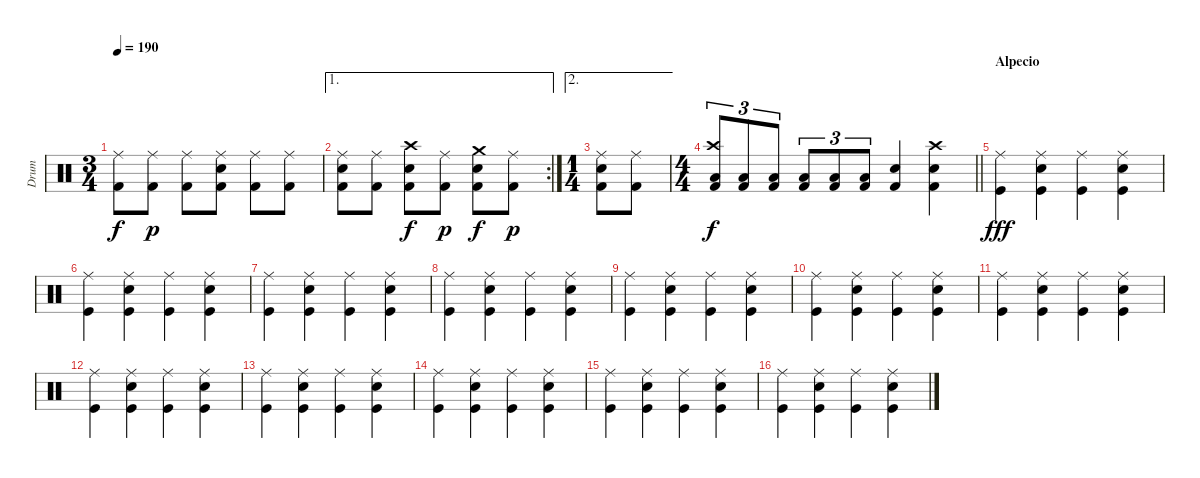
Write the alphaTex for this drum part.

\track ("Drum" "Drum") {instrument percussion}
\staff {score}
\articulation defaults
\ts (3 4)
\tempo 190
\clef neutral
\ks c
("Ride (middle)" "Kick (hit) 2").8{dy f} ("Ride (middle)" "Kick (hit) 2").8{dy p} ("Ride (middle)" "Kick (hit) 2").8 ("Ride (middle)" "Snare (hit) 2" "Kick (hit) 2").8 ("Ride (middle)" "Kick (hit) 2").8 ("Ride (middle)" "Kick (hit) 2").8 |
\ae 1
\rc 2
("Ride (middle)" "Snare (hit) 2" "Kick (hit) 2").8 ("Ride (middle)" "Kick (hit) 2").8 ("Crash high (hit)" "Snare (hit) 2" "Kick (hit) 2").8{dy f} ("Ride (middle)" "Kick (hit) 2").8{dy p} ("Crash medium (hit)" "Snare (hit) 2" "Kick (hit) 2").8{dy f} ("Ride (middle)" "Kick (hit) 2").8{dy p} |
\ae 2
\ts (1 4)
("Ride (middle)" "Snare (hit) 2" "Kick (hit) 2").8 ("Ride (middle)" "Kick (hit) 2").8 |
\ts (4 4)
\barLineRight lightlight
("Crash high (hit)" "Low Floor Tom (hit)" "Kick (hit) 2").8{tu (3 2) dy f} ("Low Floor Tom (hit)" "Kick (hit) 2").8{tu (3 2)} ("Low Floor Tom (hit)" "Kick (hit) 2").8{tu (3 2)} ("Low Floor Tom (hit)" "Kick (hit) 2").8{tu (3 2)} ("Low Floor Tom (hit)" "Kick (hit) 2").8{tu (3 2)} ("Low Floor Tom (hit)" "Kick (hit) 2").8{tu (3 2)} ("Snare (hit) 2" "Kick (hit) 2").4 ("Crash high (hit)" "Snare (hit) 2" "Kick (hit) 2").4 |
\section ("" "Alpecio")
("Ride (middle)" "Kick (hit)").4{dy fff} ("Ride (middle)" "Snare (hit) 2" "Kick (hit)").4 ("Ride (middle)" "Kick (hit)").4 ("Ride (middle)" "Snare (hit) 2" "Kick (hit)").4 |
("Ride (middle)" "Kick (hit)").4 ("Ride (middle)" "Snare (hit) 2" "Kick (hit)").4 ("Ride (middle)" "Kick (hit)").4 ("Ride (middle)" "Snare (hit) 2" "Kick (hit)").4 |
("Ride (middle)" "Kick (hit)").4 ("Ride (middle)" "Snare (hit) 2" "Kick (hit)").4 ("Ride (middle)" "Kick (hit)").4 ("Ride (middle)" "Snare (hit) 2" "Kick (hit)").4 |
("Ride (middle)" "Kick (hit)").4 ("Ride (middle)" "Snare (hit) 2" "Kick (hit)").4 ("Ride (middle)" "Kick (hit)").4 ("Ride (middle)" "Snare (hit) 2" "Kick (hit)").4 |
("Ride (middle)" "Kick (hit)").4 ("Ride (middle)" "Snare (hit) 2" "Kick (hit)").4 ("Ride (middle)" "Kick (hit)").4 ("Ride (middle)" "Snare (hit) 2" "Kick (hit)").4 |
("Ride (middle)" "Kick (hit)").4 ("Ride (middle)" "Snare (hit) 2" "Kick (hit)").4 ("Ride (middle)" "Kick (hit)").4 ("Ride (middle)" "Snare (hit) 2" "Kick (hit)").4 |
("Ride (middle)" "Kick (hit)").4 ("Ride (middle)" "Snare (hit) 2" "Kick (hit)").4 ("Ride (middle)" "Kick (hit)").4 ("Ride (middle)" "Snare (hit) 2" "Kick (hit)").4 |
("Ride (middle)" "Kick (hit)").4 ("Ride (middle)" "Snare (hit) 2" "Kick (hit)").4 ("Ride (middle)" "Kick (hit)").4 ("Ride (middle)" "Snare (hit) 2" "Kick (hit)").4 |
("Ride (middle)" "Kick (hit)").4 ("Ride (middle)" "Snare (hit) 2" "Kick (hit)").4 ("Ride (middle)" "Kick (hit)").4 ("Ride (middle)" "Snare (hit) 2" "Kick (hit)").4 |
("Ride (middle)" "Kick (hit)").4 ("Ride (middle)" "Snare (hit) 2" "Kick (hit)").4 ("Ride (middle)" "Kick (hit)").4 ("Ride (middle)" "Snare (hit) 2" "Kick (hit)").4 |
("Ride (middle)" "Kick (hit)").4 ("Ride (middle)" "Snare (hit) 2" "Kick (hit)").4 ("Ride (middle)" "Kick (hit)").4 ("Ride (middle)" "Snare (hit) 2" "Kick (hit)").4 |
("Ride (middle)" "Kick (hit)").4 ("Ride (middle)" "Snare (hit) 2" "Kick (hit)").4 ("Ride (middle)" "Kick (hit)").4 ("Ride (middle)" "Snare (hit) 2" "Kick (hit)").4
